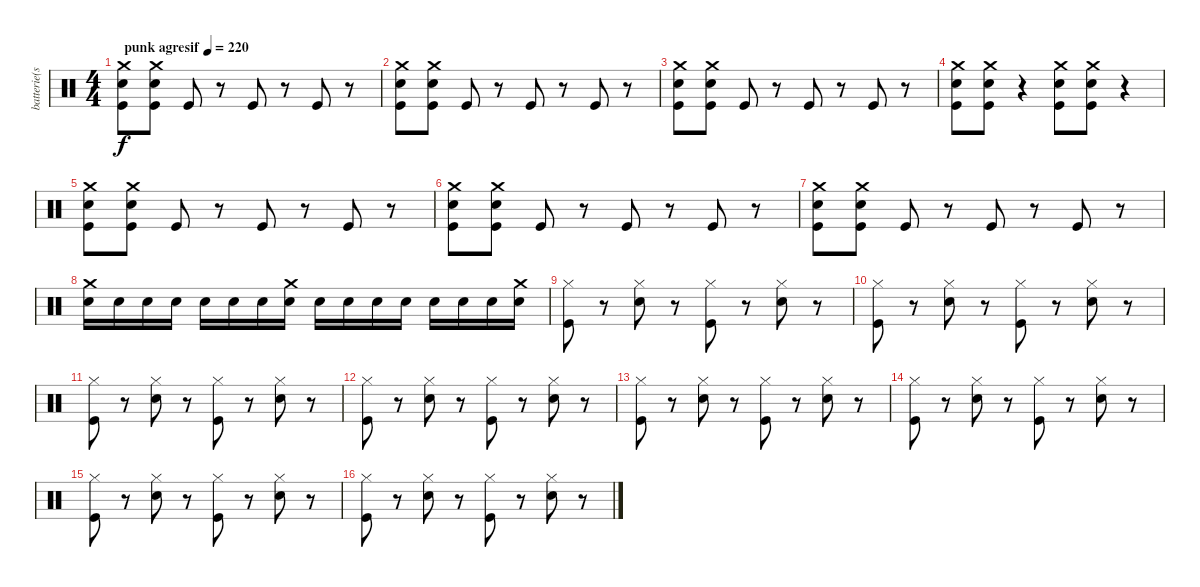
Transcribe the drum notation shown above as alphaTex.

\track ("batterie(scott)" "batterie(s") {instrument percussion}
\staff {score}
\articulation defaults
\ts (4 4)
\tempo (220 "punk agresif")
\clef neutral
\ks c
("Crash medium (hit)" "Snare (hit) 2" "Kick (hit)").8{dy f} ("Crash medium (hit)" "Snare (hit) 2" "Kick (hit)").8 "Kick (hit)".8 r.8 "Kick (hit)".8 r.8 "Kick (hit)".8 r.8 |
("Crash medium (hit)" "Snare (hit) 2" "Kick (hit)").8 ("Crash medium (hit)" "Snare (hit) 2" "Kick (hit)").8 "Kick (hit)".8 r.8 "Kick (hit)".8 r.8 "Kick (hit)".8 r.8 |
("Crash medium (hit)" "Snare (hit) 2" "Kick (hit)").8 ("Crash medium (hit)" "Snare (hit) 2" "Kick (hit)").8 "Kick (hit)".8 r.8 "Kick (hit)".8 r.8 "Kick (hit)".8 r.8 |
("Crash medium (hit)" "Snare (hit) 2" "Kick (hit)").8 ("Crash medium (hit)" "Snare (hit) 2" "Kick (hit)").8 r.4 ("Crash medium (hit)" "Snare (hit) 2" "Kick (hit)").8 ("Crash medium (hit)" "Snare (hit) 2" "Kick (hit)").8 r.4 |
("Crash medium (hit)" "Snare (hit) 2" "Kick (hit)").8 ("Crash medium (hit)" "Snare (hit) 2" "Kick (hit)").8 "Kick (hit)".8 r.8 "Kick (hit)".8 r.8 "Kick (hit)".8 r.8 |
("Crash medium (hit)" "Snare (hit) 2" "Kick (hit)").8 ("Crash medium (hit)" "Snare (hit) 2" "Kick (hit)").8 "Kick (hit)".8 r.8 "Kick (hit)".8 r.8 "Kick (hit)".8 r.8 |
("Crash medium (hit)" "Snare (hit) 2" "Kick (hit)").8 ("Crash medium (hit)" "Snare (hit) 2" "Kick (hit)").8 "Kick (hit)".8 r.8 "Kick (hit)".8 r.8 "Kick (hit)".8 r.8 |
("Crash medium (hit)" "Snare (hit) 2").16 "Snare (hit) 2".16 "Snare (hit) 2".16 "Snare (hit) 2".16 "Snare (hit) 2".16 "Snare (hit) 2".16 "Snare (hit) 2".16 ("Crash medium (hit)" "Snare (hit) 2").16 "Snare (hit) 2".16 "Snare (hit) 2".16 "Snare (hit) 2".16 "Snare (hit) 2".16 "Snare (hit) 2".16 "Snare (hit) 2".16 "Snare (hit) 2".16 ("Crash medium (hit)" "Snare (hit) 2").16 |
("Hi-Hat (closed)" "Kick (hit)").8 r.8 ("Hi-Hat (closed)" "Snare (hit) 2").8 r.8 ("Hi-Hat (closed)" "Kick (hit)").8 r.8 ("Hi-Hat (closed)" "Snare (hit) 2").8 r.8 |
("Hi-Hat (closed)" "Kick (hit)").8 r.8 ("Hi-Hat (closed)" "Snare (hit) 2").8 r.8 ("Hi-Hat (closed)" "Kick (hit)").8 r.8 ("Hi-Hat (closed)" "Snare (hit) 2").8 r.8 |
("Hi-Hat (closed)" "Kick (hit)").8 r.8 ("Hi-Hat (closed)" "Snare (hit) 2").8 r.8 ("Hi-Hat (closed)" "Kick (hit)").8 r.8 ("Hi-Hat (closed)" "Snare (hit) 2").8 r.8 |
("Hi-Hat (closed)" "Kick (hit)").8 r.8 ("Hi-Hat (closed)" "Snare (hit) 2").8 r.8 ("Hi-Hat (closed)" "Kick (hit)").8 r.8 ("Hi-Hat (closed)" "Snare (hit) 2").8 r.8 |
("Hi-Hat (closed)" "Kick (hit)").8 r.8 ("Hi-Hat (closed)" "Snare (hit) 2").8 r.8 ("Hi-Hat (closed)" "Kick (hit)").8 r.8 ("Hi-Hat (closed)" "Snare (hit) 2").8 r.8 |
("Hi-Hat (closed)" "Kick (hit)").8 r.8 ("Hi-Hat (closed)" "Snare (hit) 2").8 r.8 ("Hi-Hat (closed)" "Kick (hit)").8 r.8 ("Hi-Hat (closed)" "Snare (hit) 2").8 r.8 |
("Hi-Hat (closed)" "Kick (hit)").8 r.8 ("Hi-Hat (closed)" "Snare (hit) 2").8 r.8 ("Hi-Hat (closed)" "Kick (hit)").8 r.8 ("Hi-Hat (closed)" "Snare (hit) 2").8 r.8 |
("Hi-Hat (closed)" "Kick (hit)").8 r.8 ("Hi-Hat (closed)" "Snare (hit) 2").8 r.8 ("Hi-Hat (closed)" "Kick (hit)").8 r.8 ("Hi-Hat (closed)" "Snare (hit) 2").8 r.8
